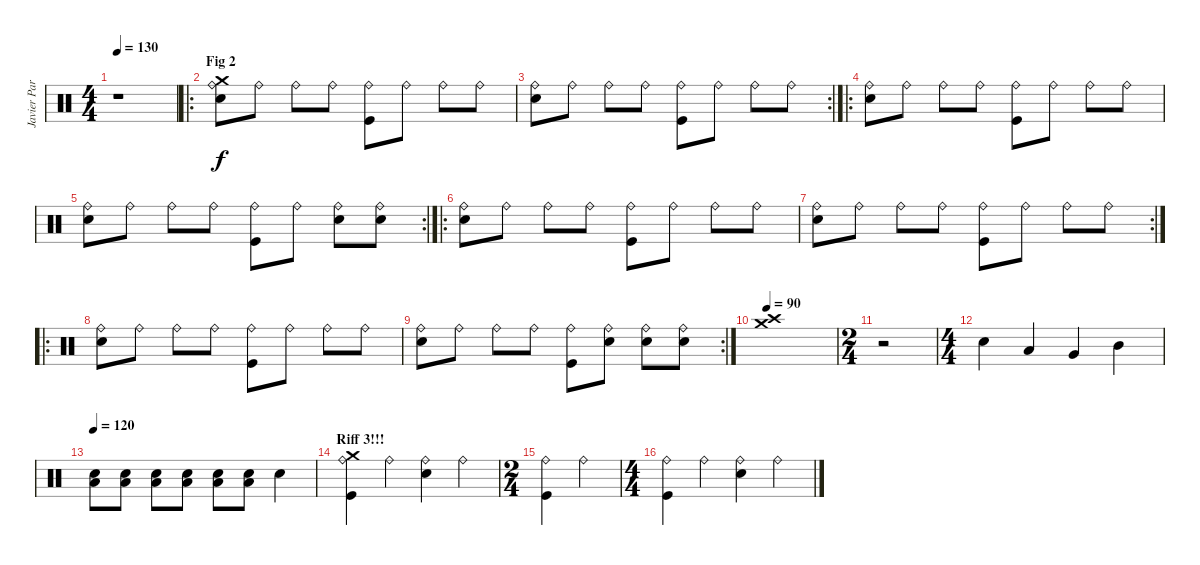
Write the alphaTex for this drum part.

\track ("Javier Partida" "Javier Par") {instrument percussion}
\staff {score}
\articulation defaults
\ts (4 4)
\tempo 130
\clef neutral
\ks c
r.1{dy f} |
\ro
\section ("" "Fig 2")
("Ride (bell)" "Snare (hit) 2" "Crash medium (hit)").8 "Ride (bell)".8 "Ride (bell)".8 "Ride (bell)".8 ("Ride (bell)" "Kick (hit)").8 "Ride (bell)".8 "Ride (bell)".8 "Ride (bell)".8 |
\rc 2
("Ride (bell)" "Snare (hit) 2").8 "Ride (bell)".8 "Ride (bell)".8 "Ride (bell)".8 ("Ride (bell)" "Kick (hit)").8 "Ride (bell)".8 "Ride (bell)".8 "Ride (bell)".8 |
\ro
("Ride (bell)" "Snare (hit) 2").8 "Ride (bell)".8 "Ride (bell)".8 "Ride (bell)".8 ("Ride (bell)" "Kick (hit)").8 "Ride (bell)".8 "Ride (bell)".8 "Ride (bell)".8 |
\rc 2
("Ride (bell)" "Snare (hit) 2").8 "Ride (bell)".8 "Ride (bell)".8 "Ride (bell)".8 ("Ride (bell)" "Kick (hit)").8 "Ride (bell)".8 ("Ride (bell)" "Snare (hit) 2").8 ("Ride (bell)" "Snare (hit) 2").8 |
\ro
("Ride (bell)" "Snare (hit) 2").8 "Ride (bell)".8 "Ride (bell)".8 "Ride (bell)".8 ("Ride (bell)" "Kick (hit)").8 "Ride (bell)".8 "Ride (bell)".8 "Ride (bell)".8 |
\rc 2
("Ride (bell)" "Snare (hit) 2").8 "Ride (bell)".8 "Ride (bell)".8 "Ride (bell)".8 ("Ride (bell)" "Kick (hit)").8 "Ride (bell)".8 "Ride (bell)".8 "Ride (bell)".8 |
\ro
("Ride (bell)" "Snare (hit) 2").8 "Ride (bell)".8 "Ride (bell)".8 "Ride (bell)".8 ("Ride (bell)" "Kick (hit)").8 "Ride (bell)".8 "Ride (bell)".8 "Ride (bell)".8 |
\rc 2
("Ride (bell)" "Snare (hit) 2").8 "Ride (bell)".8 "Ride (bell)".8 "Ride (bell)".8 ("Ride (bell)" "Kick (hit)").8 ("Ride (bell)" "Snare (hit) 2").8 ("Ride (bell)" "Snare (hit) 2").8 ("Ride (bell)" "Snare (hit) 2").8 |
\tempo 90
("Crash medium (hit)" "Crash high (hit)").1 |
\ts (2 4)
r.2 |
\ts (4 4)
"Snare (hit) 2".4 "Low Floor Tom (hit)".4 "Very Low Tom (hit)".4 "Mid Tom (hit)".4 |
\tempo 120
("Snare (hit) 2" "Low Tom (hit)").8 ("Snare (hit) 2" "Low Tom (hit)").8 ("Snare (hit) 2" "Low Tom (hit)").8 ("Snare (hit) 2" "Low Tom (hit)").8 ("Snare (hit) 2" "Low Tom (hit)").8 ("Snare (hit) 2" "Low Tom (hit)").8 "Snare (hit) 2".4 |
\section ("" "Riff 3!!!")
("Ride (bell)" "Kick (hit)" "Crash medium (hit)").4 "Ride (bell)".4 ("Ride (bell)" "Snare (hit) 2").4 "Ride (bell)".4 |
\ts (2 4)
("Ride (bell)" "Kick (hit)").4 "Ride (bell)".4 |
\ts (4 4)
("Ride (bell)" "Kick (hit)").4 "Ride (bell)".4 ("Ride (bell)" "Snare (hit) 2").4 "Ride (bell)".4
